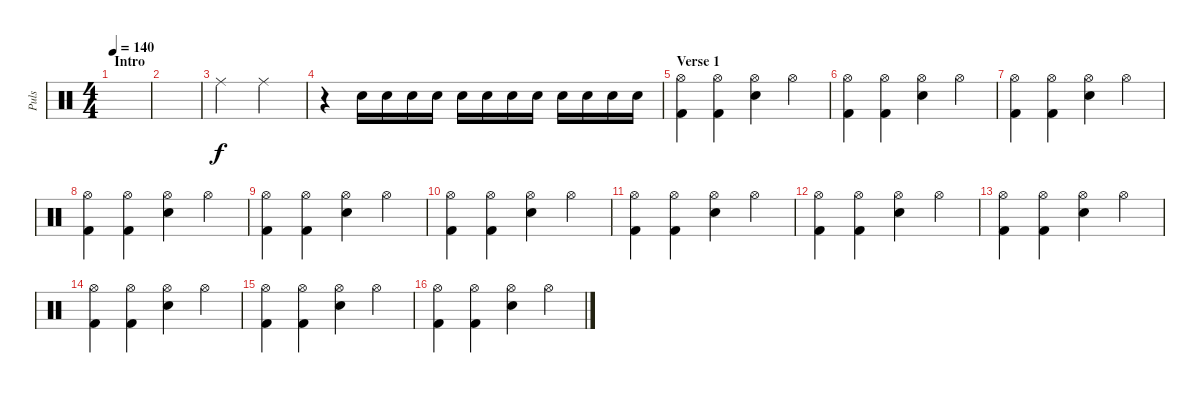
\track ("Puls" "Puls") {instrument percussion}
\staff {score}
\articulation defaults
\ts (4 4)
\section ("" "Intro")
\tempo 140
\clef neutral
\ks c
|
|
"Ride (middle)".2 "Ride (middle)".2 |
r.4 "Electric Snare (hit)".16 "Electric Snare (hit)".16 "Electric Snare (hit)".16 "Electric Snare (hit)".16 "Electric Snare (hit)".16 "Electric Snare (hit)".16 "Electric Snare (hit)".16 "Electric Snare (hit)".16 "Electric Snare (hit)".16 "Electric Snare (hit)".16 "Electric Snare (hit)".16 "Electric Snare (hit)".16 |
\section ("" "Verse 1")
("Hi-Hat (open)" "Kick (hit) 2").4 ("Hi-Hat (open)" "Kick (hit) 2").4 ("Hi-Hat (open)" "Snare (hit) 2").4 "Hi-Hat (open)".4 |
("Hi-Hat (open)" "Kick (hit) 2").4 ("Hi-Hat (open)" "Kick (hit) 2").4 ("Hi-Hat (open)" "Snare (hit) 2").4 "Hi-Hat (open)".4 |
("Hi-Hat (open)" "Kick (hit) 2").4 ("Hi-Hat (open)" "Kick (hit) 2").4 ("Hi-Hat (open)" "Snare (hit) 2").4 "Hi-Hat (open)".4 |
("Hi-Hat (open)" "Kick (hit) 2").4 ("Hi-Hat (open)" "Kick (hit) 2").4 ("Hi-Hat (open)" "Snare (hit) 2").4 "Hi-Hat (open)".4 |
("Hi-Hat (open)" "Kick (hit) 2").4 ("Hi-Hat (open)" "Kick (hit) 2").4 ("Hi-Hat (open)" "Snare (hit) 2").4 "Hi-Hat (open)".4 |
("Hi-Hat (open)" "Kick (hit) 2").4 ("Hi-Hat (open)" "Kick (hit) 2").4 ("Hi-Hat (open)" "Snare (hit) 2").4 "Hi-Hat (open)".4 |
("Hi-Hat (open)" "Kick (hit) 2").4 ("Hi-Hat (open)" "Kick (hit) 2").4 ("Hi-Hat (open)" "Snare (hit) 2").4 "Hi-Hat (open)".4 |
("Hi-Hat (open)" "Kick (hit) 2").4 ("Hi-Hat (open)" "Kick (hit) 2").4 ("Hi-Hat (open)" "Snare (hit) 2").4 "Hi-Hat (open)".4 |
("Hi-Hat (open)" "Kick (hit) 2").4 ("Hi-Hat (open)" "Kick (hit) 2").4 ("Hi-Hat (open)" "Snare (hit) 2").4 "Hi-Hat (open)".4 |
("Hi-Hat (open)" "Kick (hit) 2").4 ("Hi-Hat (open)" "Kick (hit) 2").4 ("Hi-Hat (open)" "Snare (hit) 2").4 "Hi-Hat (open)".4 |
("Hi-Hat (open)" "Kick (hit) 2").4 ("Hi-Hat (open)" "Kick (hit) 2").4 ("Hi-Hat (open)" "Snare (hit) 2").4 "Hi-Hat (open)".4 |
("Hi-Hat (open)" "Kick (hit) 2").4 ("Hi-Hat (open)" "Kick (hit) 2").4 ("Hi-Hat (open)" "Snare (hit) 2").4 "Hi-Hat (open)".4
